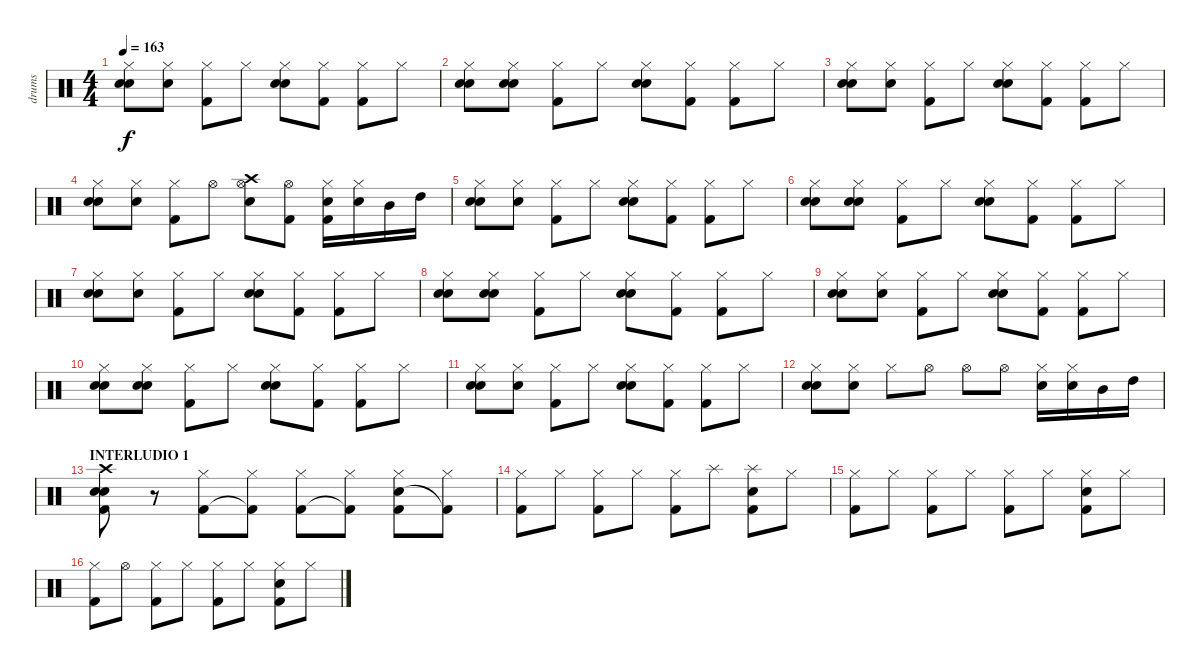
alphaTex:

\track ("drums" "drums") {instrument percussion}
\staff {score}
\articulation defaults
\ts (4 4)
\tempo 163
\clef neutral
\ks c
("Hand Clap (hit)" "Hi-Hat (closed)" "Electric Snare (hit)").8{dy f} ("Hand Clap (hit)" "Hi-Hat (closed)").8 ("Hi-Hat (closed)" "Kick (hit) 2").8 "Hi-Hat (closed)".8 ("Hand Clap (hit)" "Hi-Hat (closed)" "Electric Snare (hit)").8 ("Hi-Hat (closed)" "Kick (hit) 2").8 ("Hi-Hat (closed)" "Kick (hit) 2").8 "Hi-Hat (closed)".8 |
("Hand Clap (hit)" "Hi-Hat (closed)" "Electric Snare (hit)").8 ("Hand Clap (hit)" "Hi-Hat (closed)" "Electric Snare (hit)").8 ("Hi-Hat (closed)" "Kick (hit) 2").8 "Hi-Hat (closed)".8 ("Hand Clap (hit)" "Hi-Hat (closed)" "Electric Snare (hit)").8 ("Hi-Hat (closed)" "Kick (hit) 2").8 ("Hi-Hat (closed)" "Kick (hit) 2").8 "Hi-Hat (closed)".8 |
("Hand Clap (hit)" "Hi-Hat (closed)" "Electric Snare (hit)").8 ("Hand Clap (hit)" "Hi-Hat (closed)").8 ("Hi-Hat (closed)" "Kick (hit) 2").8 "Hi-Hat (closed)".8 ("Hand Clap (hit)" "Hi-Hat (closed)" "Electric Snare (hit)").8 ("Hi-Hat (closed)" "Kick (hit) 2").8 ("Hi-Hat (closed)" "Kick (hit) 2").8 "Hi-Hat (closed)".8 |
("Hand Clap (hit)" "Electric Snare (hit)" "Hi-Hat (closed)").8 ("Hand Clap (hit)" "Hi-Hat (closed)").8 ("Hi-Hat (closed)" "Kick (hit) 2").8 "Hi-Hat (open)".8 ("Crash high (hit)" "Electric Snare (hit)" "Hi-Hat (open)").8 ("Hi-Hat (open)" "Kick (hit) 2").8 ("Electric Snare (hit)" "Hi-Hat (closed)" "Kick (hit) 2").16 ("Electric Snare (hit)" "Hi-Hat (closed)").16 "Mid Tom (hit)".16 "High Tom (hit)".16 |
("Hand Clap (hit)" "Hi-Hat (closed)" "Electric Snare (hit)").8 ("Hand Clap (hit)" "Hi-Hat (closed)").8 ("Hi-Hat (closed)" "Kick (hit) 2").8 "Hi-Hat (closed)".8 ("Hand Clap (hit)" "Hi-Hat (closed)" "Electric Snare (hit)").8 ("Hi-Hat (closed)" "Kick (hit) 2").8 ("Hi-Hat (closed)" "Kick (hit) 2").8 "Hi-Hat (closed)".8 |
("Hand Clap (hit)" "Hi-Hat (closed)" "Electric Snare (hit)").8 ("Hand Clap (hit)" "Hi-Hat (closed)" "Electric Snare (hit)").8 ("Hi-Hat (closed)" "Kick (hit) 2").8 "Hi-Hat (closed)".8 ("Hand Clap (hit)" "Hi-Hat (closed)" "Electric Snare (hit)").8 ("Hi-Hat (closed)" "Kick (hit) 2").8 ("Hi-Hat (closed)" "Kick (hit) 2").8 "Hi-Hat (closed)".8 |
("Hand Clap (hit)" "Hi-Hat (closed)" "Electric Snare (hit)").8 ("Hand Clap (hit)" "Hi-Hat (closed)").8 ("Hi-Hat (closed)" "Kick (hit) 2").8 "Hi-Hat (closed)".8 ("Hand Clap (hit)" "Hi-Hat (closed)" "Electric Snare (hit)").8 ("Hi-Hat (closed)" "Kick (hit) 2").8 ("Hi-Hat (closed)" "Kick (hit) 2").8 "Hi-Hat (closed)".8 |
("Hand Clap (hit)" "Hi-Hat (closed)" "Electric Snare (hit)").8 ("Hand Clap (hit)" "Hi-Hat (closed)" "Electric Snare (hit)").8 ("Hi-Hat (closed)" "Kick (hit) 2").8 "Hi-Hat (closed)".8 ("Hand Clap (hit)" "Hi-Hat (closed)" "Electric Snare (hit)").8 ("Hi-Hat (closed)" "Kick (hit) 2").8 ("Hi-Hat (closed)" "Kick (hit) 2").8 "Hi-Hat (closed)".8 |
("Hand Clap (hit)" "Hi-Hat (closed)" "Electric Snare (hit)").8 ("Hand Clap (hit)" "Hi-Hat (closed)").8 ("Hi-Hat (closed)" "Kick (hit) 2").8 "Hi-Hat (closed)".8 ("Hand Clap (hit)" "Hi-Hat (closed)" "Electric Snare (hit)").8 ("Hi-Hat (closed)" "Kick (hit) 2").8 ("Hi-Hat (closed)" "Kick (hit) 2").8 "Hi-Hat (closed)".8 |
("Hand Clap (hit)" "Hi-Hat (closed)" "Electric Snare (hit)").8 ("Hand Clap (hit)" "Hi-Hat (closed)" "Electric Snare (hit)").8 ("Hi-Hat (closed)" "Kick (hit) 2").8 "Hi-Hat (closed)".8 ("Hand Clap (hit)" "Hi-Hat (closed)" "Electric Snare (hit)").8 ("Hi-Hat (closed)" "Kick (hit) 2").8 ("Hi-Hat (closed)" "Kick (hit) 2").8 "Hi-Hat (closed)".8 |
("Hand Clap (hit)" "Hi-Hat (closed)" "Electric Snare (hit)").8 ("Hand Clap (hit)" "Hi-Hat (closed)").8 ("Hi-Hat (closed)" "Kick (hit) 2").8 "Hi-Hat (closed)".8 ("Hand Clap (hit)" "Hi-Hat (closed)" "Electric Snare (hit)").8 ("Hi-Hat (closed)" "Kick (hit) 2").8 ("Hi-Hat (closed)" "Kick (hit) 2").8 "Hi-Hat (closed)".8 |
("Hand Clap (hit)" "Electric Snare (hit)" "Hi-Hat (closed)").8 ("Hand Clap (hit)" "Hi-Hat (closed)").8 "Hi-Hat (closed)".8 "Hi-Hat (open)".8 "Hi-Hat (open)".8 "Hi-Hat (open)".8 ("Electric Snare (hit)" "Hi-Hat (closed)").16 ("Electric Snare (hit)" "Hi-Hat (closed)").16 "Mid Tom (hit)".16 "High Tom (hit)".16 |
\section ("" "INTERLUDIO 1")
("Crash high (hit)" "Electric Snare (hit)" "Electric Snare (hit)" "Kick (hit) 2").8 r.8 ("Hi-Hat (closed)" "Kick (hit) 2").8 ("Hi-Hat (closed)" "Kick (hit) 2"{t}).8 ("Hi-Hat (closed)" "Kick (hit) 2").8 ("Hi-Hat (closed)" "Kick (hit) 2"{t}).8 ("Hi-Hat (closed)" "Electric Snare (hit)" "Kick (hit) 2").8 ("Hi-Hat (closed)" "Kick (hit) 2"{t}).8 |
("Hi-Hat (closed)" "Kick (hit) 2").8 "Hi-Hat (closed)".8 ("Hi-Hat (closed)" "Kick (hit) 2").8 "Hi-Hat (closed)".8 ("Hi-Hat (closed)" "Kick (hit) 2").8 "Splash (hit)".8 ("Splash (hit)" "Electric Snare (hit)" "Kick (hit) 2").8 "Hi-Hat (closed)".8 |
("Hi-Hat (closed)" "Kick (hit) 2").8 "Hi-Hat (closed)".8 ("Hi-Hat (closed)" "Kick (hit) 2").8 "Hi-Hat (closed)".8 ("Hi-Hat (closed)" "Kick (hit) 2").8 "Hi-Hat (closed)".8 ("Hi-Hat (closed)" "Electric Snare (hit)" "Kick (hit) 2").8 "Hi-Hat (closed)".8 |
("Hi-Hat (closed)" "Kick (hit) 2").8 "Hi-Hat (open)".8 ("Hi-Hat (closed)" "Kick (hit) 2").8 "Hi-Hat (closed)".8 ("Hi-Hat (closed)" "Kick (hit) 2").8 "Hi-Hat (closed)".8 ("Hi-Hat (closed)" "Electric Snare (hit)" "Kick (hit) 2").8 "Hi-Hat (closed)".8
